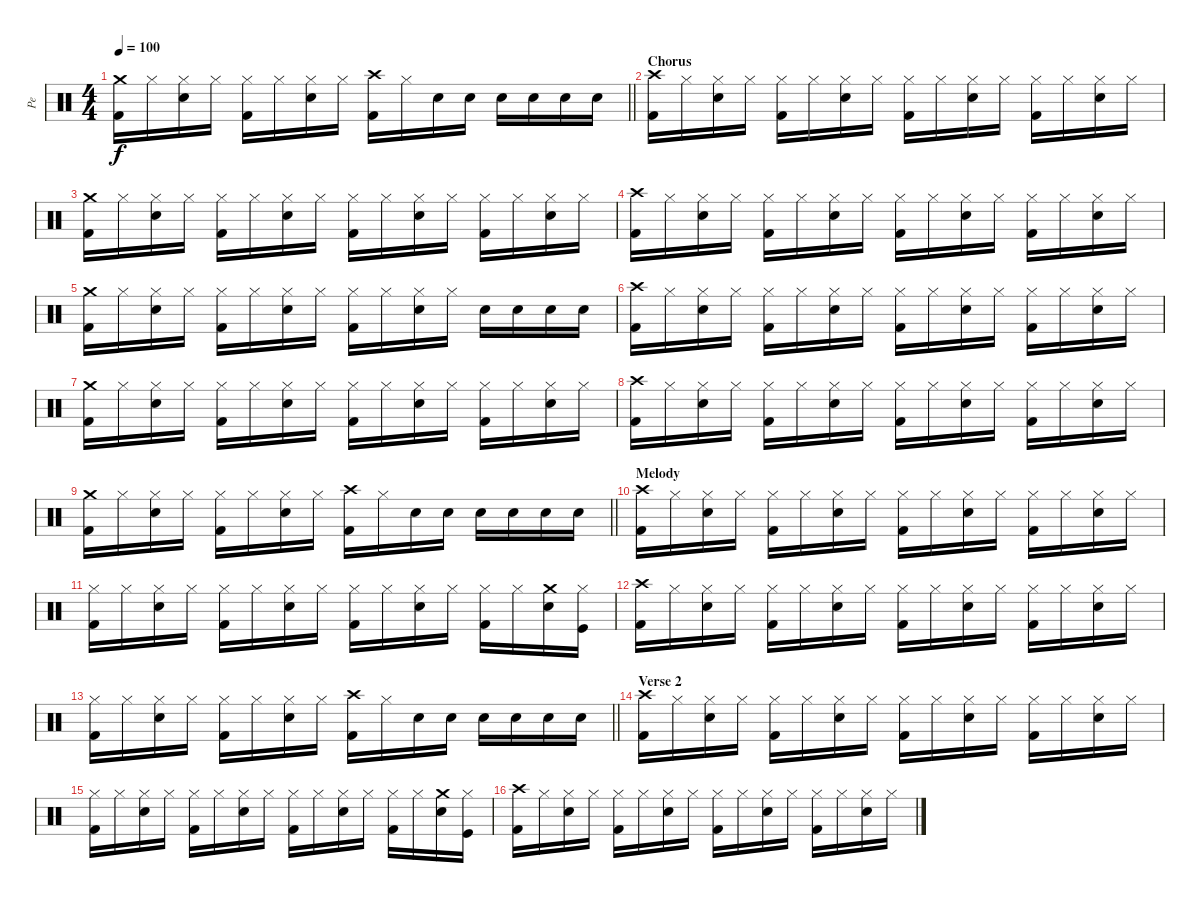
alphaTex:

\track ("Pe" "Pe") {instrument percussion}
\staff {score}
\articulation defaults
\ts (4 4)
\tempo 100
\clef neutral
\barLineRight lightlight
\ks c
("Kick (hit) 2" "Crash medium (hit)").16{dy f} "Hi-Hat (closed)".16 ("Electric Snare (hit)" "Hi-Hat (closed)").16 "Hi-Hat (closed)".16 ("Kick (hit) 2" "Hi-Hat (closed)").16 "Hi-Hat (closed)".16 ("Electric Snare (hit)" "Hi-Hat (closed)").16 "Hi-Hat (closed)".16 ("Kick (hit) 2" "Crash high (hit)").16 "Hi-Hat (closed)".16 "Electric Snare (hit)".16 "Electric Snare (hit)".16 "Electric Snare (hit)".16 "Electric Snare (hit)".16 "Electric Snare (hit)".16 "Electric Snare (hit)".16 |
\section ("" "Chorus")
("Kick (hit) 2" "Crash high (hit)").16 "Hi-Hat (closed)".16 ("Electric Snare (hit)" "Hi-Hat (closed)").16 "Hi-Hat (closed)".16 ("Kick (hit) 2" "Hi-Hat (closed)").16 "Hi-Hat (closed)".16 ("Electric Snare (hit)" "Hi-Hat (closed)").16 "Hi-Hat (closed)".16 ("Kick (hit) 2" "Hi-Hat (closed)").16 "Hi-Hat (closed)".16 ("Electric Snare (hit)" "Hi-Hat (closed)").16 "Hi-Hat (closed)".16 ("Kick (hit) 2" "Hi-Hat (closed)").16 "Hi-Hat (closed)".16 ("Electric Snare (hit)" "Hi-Hat (closed)").16 "Hi-Hat (closed)".16 |
("Kick (hit) 2" "Crash medium (hit)").16 "Hi-Hat (closed)".16 ("Electric Snare (hit)" "Hi-Hat (closed)").16 "Hi-Hat (closed)".16 ("Kick (hit) 2" "Hi-Hat (closed)").16 "Hi-Hat (closed)".16 ("Electric Snare (hit)" "Hi-Hat (closed)").16 "Hi-Hat (closed)".16 ("Kick (hit) 2" "Hi-Hat (closed)").16 "Hi-Hat (closed)".16 ("Electric Snare (hit)" "Hi-Hat (closed)").16 "Hi-Hat (closed)".16 ("Kick (hit) 2" "Hi-Hat (closed)").16 "Hi-Hat (closed)".16 ("Electric Snare (hit)" "Hi-Hat (closed)").16 "Hi-Hat (closed)".16 |
("Kick (hit) 2" "Crash high (hit)").16 "Hi-Hat (closed)".16 ("Electric Snare (hit)" "Hi-Hat (closed)").16 "Hi-Hat (closed)".16 ("Kick (hit) 2" "Hi-Hat (closed)").16 "Hi-Hat (closed)".16 ("Electric Snare (hit)" "Hi-Hat (closed)").16 "Hi-Hat (closed)".16 ("Kick (hit) 2" "Hi-Hat (closed)").16 "Hi-Hat (closed)".16 ("Electric Snare (hit)" "Hi-Hat (closed)").16 "Hi-Hat (closed)".16 ("Kick (hit) 2" "Hi-Hat (closed)").16 "Hi-Hat (closed)".16 ("Electric Snare (hit)" "Hi-Hat (closed)").16 "Hi-Hat (closed)".16 |
("Kick (hit) 2" "Crash medium (hit)").16 "Hi-Hat (closed)".16 ("Electric Snare (hit)" "Hi-Hat (closed)").16 "Hi-Hat (closed)".16 ("Kick (hit) 2" "Hi-Hat (closed)").16 "Hi-Hat (closed)".16 ("Electric Snare (hit)" "Hi-Hat (closed)").16 "Hi-Hat (closed)".16 ("Kick (hit) 2" "Hi-Hat (closed)").16 "Hi-Hat (closed)".16 ("Electric Snare (hit)" "Hi-Hat (closed)").16 "Hi-Hat (closed)".16 "Electric Snare (hit)".16 "Electric Snare (hit)".16 "Electric Snare (hit)".16 "Electric Snare (hit)".16 |
("Kick (hit) 2" "Crash high (hit)").16 "Hi-Hat (closed)".16 ("Electric Snare (hit)" "Hi-Hat (closed)").16 "Hi-Hat (closed)".16 ("Kick (hit) 2" "Hi-Hat (closed)").16 "Hi-Hat (closed)".16 ("Electric Snare (hit)" "Hi-Hat (closed)").16 "Hi-Hat (closed)".16 ("Kick (hit) 2" "Hi-Hat (closed)").16 "Hi-Hat (closed)".16 ("Electric Snare (hit)" "Hi-Hat (closed)").16 "Hi-Hat (closed)".16 ("Kick (hit) 2" "Hi-Hat (closed)").16 "Hi-Hat (closed)".16 ("Electric Snare (hit)" "Hi-Hat (closed)").16 "Hi-Hat (closed)".16 |
("Kick (hit) 2" "Crash medium (hit)").16 "Hi-Hat (closed)".16 ("Electric Snare (hit)" "Hi-Hat (closed)").16 "Hi-Hat (closed)".16 ("Kick (hit) 2" "Hi-Hat (closed)").16 "Hi-Hat (closed)".16 ("Electric Snare (hit)" "Hi-Hat (closed)").16 "Hi-Hat (closed)".16 ("Kick (hit) 2" "Hi-Hat (closed)").16 "Hi-Hat (closed)".16 ("Electric Snare (hit)" "Hi-Hat (closed)").16 "Hi-Hat (closed)".16 ("Kick (hit) 2" "Hi-Hat (closed)").16 "Hi-Hat (closed)".16 ("Electric Snare (hit)" "Hi-Hat (closed)").16 "Hi-Hat (closed)".16 |
("Kick (hit) 2" "Crash high (hit)").16 "Hi-Hat (closed)".16 ("Electric Snare (hit)" "Hi-Hat (closed)").16 "Hi-Hat (closed)".16 ("Kick (hit) 2" "Hi-Hat (closed)").16 "Hi-Hat (closed)".16 ("Electric Snare (hit)" "Hi-Hat (closed)").16 "Hi-Hat (closed)".16 ("Kick (hit) 2" "Hi-Hat (closed)").16 "Hi-Hat (closed)".16 ("Electric Snare (hit)" "Hi-Hat (closed)").16 "Hi-Hat (closed)".16 ("Kick (hit) 2" "Hi-Hat (closed)").16 "Hi-Hat (closed)".16 ("Electric Snare (hit)" "Hi-Hat (closed)").16 "Hi-Hat (closed)".16 |
\barLineRight lightlight
("Kick (hit) 2" "Crash medium (hit)").16 "Hi-Hat (closed)".16 ("Electric Snare (hit)" "Hi-Hat (closed)").16 "Hi-Hat (closed)".16 ("Kick (hit) 2" "Hi-Hat (closed)").16 "Hi-Hat (closed)".16 ("Electric Snare (hit)" "Hi-Hat (closed)").16 "Hi-Hat (closed)".16 ("Kick (hit) 2" "Crash high (hit)").16 "Hi-Hat (closed)".16 "Electric Snare (hit)".16 "Electric Snare (hit)".16 "Electric Snare (hit)".16 "Electric Snare (hit)".16 "Electric Snare (hit)".16 "Electric Snare (hit)".16 |
\section ("" "Melody")
("Kick (hit) 2" "Crash high (hit)").16 "Hi-Hat (closed)".16 ("Electric Snare (hit)" "Hi-Hat (closed)").16 "Hi-Hat (closed)".16 ("Kick (hit) 2" "Hi-Hat (closed)").16 "Hi-Hat (closed)".16 ("Electric Snare (hit)" "Hi-Hat (closed)").16 "Hi-Hat (closed)".16 ("Kick (hit) 2" "Hi-Hat (closed)").16 "Hi-Hat (closed)".16 ("Electric Snare (hit)" "Hi-Hat (closed)").16 "Hi-Hat (closed)".16 ("Kick (hit) 2" "Hi-Hat (closed)").16 "Hi-Hat (closed)".16 ("Electric Snare (hit)" "Hi-Hat (closed)").16 "Hi-Hat (closed)".16 |
("Kick (hit) 2" "Hi-Hat (closed)").16 "Hi-Hat (closed)".16 ("Electric Snare (hit)" "Hi-Hat (closed)").16 "Hi-Hat (closed)".16 ("Kick (hit) 2" "Hi-Hat (closed)").16 "Hi-Hat (closed)".16 ("Electric Snare (hit)" "Hi-Hat (closed)").16 "Hi-Hat (closed)".16 ("Kick (hit) 2" "Hi-Hat (closed)").16 "Hi-Hat (closed)".16 ("Electric Snare (hit)" "Hi-Hat (closed)").16 "Hi-Hat (closed)".16 ("Kick (hit) 2" "Hi-Hat (closed)").16 "Hi-Hat (closed)".16 ("Electric Snare (hit)" "Crash medium (hit)").16 ("Kick (hit)" "Hi-Hat (closed)").16 |
("Kick (hit) 2" "Crash high (hit)").16 "Hi-Hat (closed)".16 ("Electric Snare (hit)" "Hi-Hat (closed)").16 "Hi-Hat (closed)".16 ("Kick (hit) 2" "Hi-Hat (closed)").16 "Hi-Hat (closed)".16 ("Electric Snare (hit)" "Hi-Hat (closed)").16 "Hi-Hat (closed)".16 ("Kick (hit) 2" "Hi-Hat (closed)").16 "Hi-Hat (closed)".16 ("Electric Snare (hit)" "Hi-Hat (closed)").16 "Hi-Hat (closed)".16 ("Kick (hit) 2" "Hi-Hat (closed)").16 "Hi-Hat (closed)".16 ("Electric Snare (hit)" "Hi-Hat (closed)").16 "Hi-Hat (closed)".16 |
\barLineRight lightlight
("Kick (hit) 2" "Hi-Hat (closed)").16 "Hi-Hat (closed)".16 ("Electric Snare (hit)" "Hi-Hat (closed)").16 "Hi-Hat (closed)".16 ("Kick (hit) 2" "Hi-Hat (closed)").16 "Hi-Hat (closed)".16 ("Electric Snare (hit)" "Hi-Hat (closed)").16 "Hi-Hat (closed)".16 ("Kick (hit) 2" "Crash high (hit)").16 "Hi-Hat (closed)".16 "Electric Snare (hit)".16 "Electric Snare (hit)".16 "Electric Snare (hit)".16 "Electric Snare (hit)".16 "Electric Snare (hit)".16 "Electric Snare (hit)".16 |
\section ("" "Verse 2")
("Kick (hit) 2" "Crash high (hit)").16 "Hi-Hat (closed)".16 ("Electric Snare (hit)" "Hi-Hat (closed)").16 "Hi-Hat (closed)".16 ("Kick (hit) 2" "Hi-Hat (closed)").16 "Hi-Hat (closed)".16 ("Electric Snare (hit)" "Hi-Hat (closed)").16 "Hi-Hat (closed)".16 ("Kick (hit) 2" "Hi-Hat (closed)").16 "Hi-Hat (closed)".16 ("Electric Snare (hit)" "Hi-Hat (closed)").16 "Hi-Hat (closed)".16 ("Kick (hit) 2" "Hi-Hat (closed)").16 "Hi-Hat (closed)".16 ("Electric Snare (hit)" "Hi-Hat (closed)").16 "Hi-Hat (closed)".16 |
("Kick (hit) 2" "Hi-Hat (closed)").16 "Hi-Hat (closed)".16 ("Electric Snare (hit)" "Hi-Hat (closed)").16 "Hi-Hat (closed)".16 ("Kick (hit) 2" "Hi-Hat (closed)").16 "Hi-Hat (closed)".16 ("Electric Snare (hit)" "Hi-Hat (closed)").16 "Hi-Hat (closed)".16 ("Kick (hit) 2" "Hi-Hat (closed)").16 "Hi-Hat (closed)".16 ("Electric Snare (hit)" "Hi-Hat (closed)").16 "Hi-Hat (closed)".16 ("Kick (hit) 2" "Hi-Hat (closed)").16 "Hi-Hat (closed)".16 ("Electric Snare (hit)" "Crash medium (hit)").16 ("Kick (hit)" "Hi-Hat (closed)").16 |
("Kick (hit) 2" "Crash high (hit)").16 "Hi-Hat (closed)".16 ("Electric Snare (hit)" "Hi-Hat (closed)").16 "Hi-Hat (closed)".16 ("Kick (hit) 2" "Hi-Hat (closed)").16 "Hi-Hat (closed)".16 ("Electric Snare (hit)" "Hi-Hat (closed)").16 "Hi-Hat (closed)".16 ("Kick (hit) 2" "Hi-Hat (closed)").16 "Hi-Hat (closed)".16 ("Electric Snare (hit)" "Hi-Hat (closed)").16 "Hi-Hat (closed)".16 ("Kick (hit) 2" "Hi-Hat (closed)").16 "Hi-Hat (closed)".16 ("Electric Snare (hit)" "Hi-Hat (closed)").16 "Hi-Hat (closed)".16
